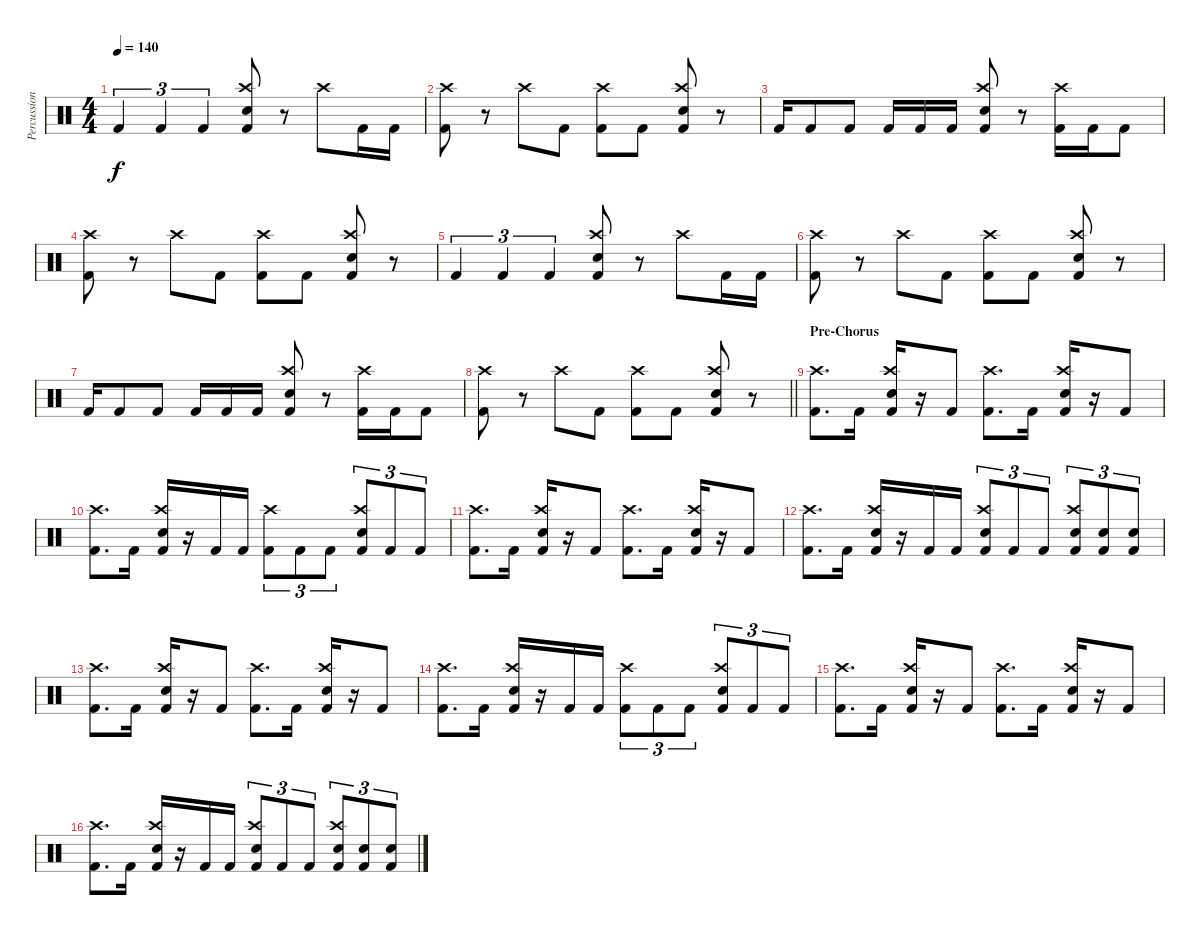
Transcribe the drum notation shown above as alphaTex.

\track ("Percussion" "Percussion") {instrument percussion}
\staff {score}
\articulation defaults
\ts (4 4)
\tempo 140
\clef neutral
\ks c "Kick (hit) 2".4{tu (3 2) dy f} "Kick (hit) 2".4{tu (3 2)} "Kick (hit) 2".4{tu (3 2)}
("Crash high (hit)" "Electric Snare (hit)" "Kick (hit) 2").8 r.8 "Crash high (hit)".8 "Kick (hit) 2".16 "Kick (hit) 2".16 |
("Crash high (hit)" "Kick (hit) 2").8 r.8 "Crash high (hit)".8 "Kick (hit) 2".8 ("Crash high (hit)" "Kick (hit) 2").8 "Kick (hit) 2".8 ("Crash high (hit)" "Electric Snare (hit)" "Kick (hit) 2").8 r.8 |
"Kick (hit) 2".16 "Kick (hit) 2".8 "Kick (hit) 2".8 "Kick (hit) 2".16 "Kick (hit) 2".16 "Kick (hit) 2".16 ("Crash high (hit)" "Electric Snare (hit)" "Kick (hit) 2").8 r.8 ("Crash high (hit)" "Kick (hit) 2").16 "Kick (hit) 2".16 "Kick (hit) 2".8 |
("Crash high (hit)" "Kick (hit) 2").8 r.8 "Crash high (hit)".8 "Kick (hit) 2".8 ("Crash high (hit)" "Kick (hit) 2").8 "Kick (hit) 2".8 ("Crash high (hit)" "Electric Snare (hit)" "Kick (hit) 2").8 r.8 |
"Kick (hit) 2".4{tu (3 2)} "Kick (hit) 2".4{tu (3 2)} "Kick (hit) 2".4{tu (3 2)} ("Crash high (hit)" "Electric Snare (hit)" "Kick (hit) 2").8 r.8 "Crash high (hit)".8 "Kick (hit) 2".16 "Kick (hit) 2".16 |
("Crash high (hit)" "Kick (hit) 2").8 r.8 "Crash high (hit)".8 "Kick (hit) 2".8 ("Crash high (hit)" "Kick (hit) 2").8 "Kick (hit) 2".8 ("Crash high (hit)" "Electric Snare (hit)" "Kick (hit) 2").8 r.8 |
"Kick (hit) 2".16 "Kick (hit) 2".8 "Kick (hit) 2".8 "Kick (hit) 2".16 "Kick (hit) 2".16 "Kick (hit) 2".16 ("Crash high (hit)" "Electric Snare (hit)" "Kick (hit) 2").8 r.8 ("Crash high (hit)" "Kick (hit) 2").16 "Kick (hit) 2".16 "Kick (hit) 2".8 |
\barLineRight lightlight
("Crash high (hit)" "Kick (hit) 2").8 r.8 "Crash high (hit)".8 "Kick (hit) 2".8 ("Crash high (hit)" "Kick (hit) 2").8 "Kick (hit) 2".8 ("Crash high (hit)" "Electric Snare (hit)" "Kick (hit) 2").8 r.8 |
\section ("" "Pre-Chorus")
("Crash high (hit)" "Kick (hit) 2").8{d} "Kick (hit) 2".16 ("Crash high (hit)" "Electric Snare (hit)" "Kick (hit) 2").16 r.16 "Kick (hit) 2".8 ("Crash high (hit)" "Kick (hit) 2").8{d} "Kick (hit) 2".16 ("Crash high (hit)" "Electric Snare (hit)" "Kick (hit) 2").16 r.16 "Kick (hit) 2".8 |
("Crash high (hit)" "Kick (hit) 2").8{d} "Kick (hit) 2".16 ("Crash high (hit)" "Electric Snare (hit)" "Kick (hit) 2").16 r.16 "Kick (hit) 2".16 "Kick (hit) 2".16 ("Crash high (hit)" "Kick (hit) 2").8{tu (3 2)} "Kick (hit) 2".8{tu (3 2)} "Kick (hit) 2".8{tu (3 2)} ("Crash high (hit)" "Electric Snare (hit)" "Kick (hit) 2").8{tu (3 2)} "Kick (hit) 2".8{tu (3 2)} "Kick (hit) 2".8{tu (3 2)} |
("Crash high (hit)" "Kick (hit) 2").8{d} "Kick (hit) 2".16 ("Crash high (hit)" "Electric Snare (hit)" "Kick (hit) 2").16 r.16 "Kick (hit) 2".8 ("Crash high (hit)" "Kick (hit) 2").8{d} "Kick (hit) 2".16 ("Crash high (hit)" "Electric Snare (hit)" "Kick (hit) 2").16 r.16 "Kick (hit) 2".8 |
("Crash high (hit)" "Kick (hit) 2").8{d} "Kick (hit) 2".16 ("Crash high (hit)" "Electric Snare (hit)" "Kick (hit) 2").16 r.16 "Kick (hit) 2".16 "Kick (hit) 2".16 ("Crash high (hit)" "Electric Snare (hit)" "Kick (hit) 2").8{tu (3 2)} "Kick (hit) 2".8{tu (3 2)} "Kick (hit) 2".8{tu (3 2)} ("Crash high (hit)" "Electric Snare (hit)" "Kick (hit) 2").8{tu (3 2)} ("Electric Snare (hit)" "Kick (hit) 2").8{tu (3 2)} ("Electric Snare (hit)" "Kick (hit) 2").8{tu (3 2)} |
("Crash high (hit)" "Kick (hit) 2").8{d} "Kick (hit) 2".16 ("Crash high (hit)" "Electric Snare (hit)" "Kick (hit) 2").16 r.16 "Kick (hit) 2".8 ("Crash high (hit)" "Kick (hit) 2").8{d} "Kick (hit) 2".16 ("Crash high (hit)" "Electric Snare (hit)" "Kick (hit) 2").16 r.16 "Kick (hit) 2".8 |
("Crash high (hit)" "Kick (hit) 2").8{d} "Kick (hit) 2".16 ("Crash high (hit)" "Electric Snare (hit)" "Kick (hit) 2").16 r.16 "Kick (hit) 2".16 "Kick (hit) 2".16 ("Crash high (hit)" "Kick (hit) 2").8{tu (3 2)} "Kick (hit) 2".8{tu (3 2)} "Kick (hit) 2".8{tu (3 2)} ("Crash high (hit)" "Electric Snare (hit)" "Kick (hit) 2").8{tu (3 2)} "Kick (hit) 2".8{tu (3 2)} "Kick (hit) 2".8{tu (3 2)} |
("Crash high (hit)" "Kick (hit) 2").8{d} "Kick (hit) 2".16 ("Crash high (hit)" "Electric Snare (hit)" "Kick (hit) 2").16 r.16 "Kick (hit) 2".8 ("Crash high (hit)" "Kick (hit) 2").8{d} "Kick (hit) 2".16 ("Crash high (hit)" "Electric Snare (hit)" "Kick (hit) 2").16 r.16 "Kick (hit) 2".8 |
("Crash high (hit)" "Kick (hit) 2").8{d} "Kick (hit) 2".16 ("Crash high (hit)" "Electric Snare (hit)" "Kick (hit) 2").16 r.16 "Kick (hit) 2".16 "Kick (hit) 2".16 ("Crash high (hit)" "Electric Snare (hit)" "Kick (hit) 2").8{tu (3 2)} "Kick (hit) 2".8{tu (3 2)} "Kick (hit) 2".8{tu (3 2)} ("Crash high (hit)" "Electric Snare (hit)" "Kick (hit) 2").8{tu (3 2)} ("Electric Snare (hit)" "Kick (hit) 2").8{tu (3 2)} ("Electric Snare (hit)" "Kick (hit) 2").8{tu (3 2)}
